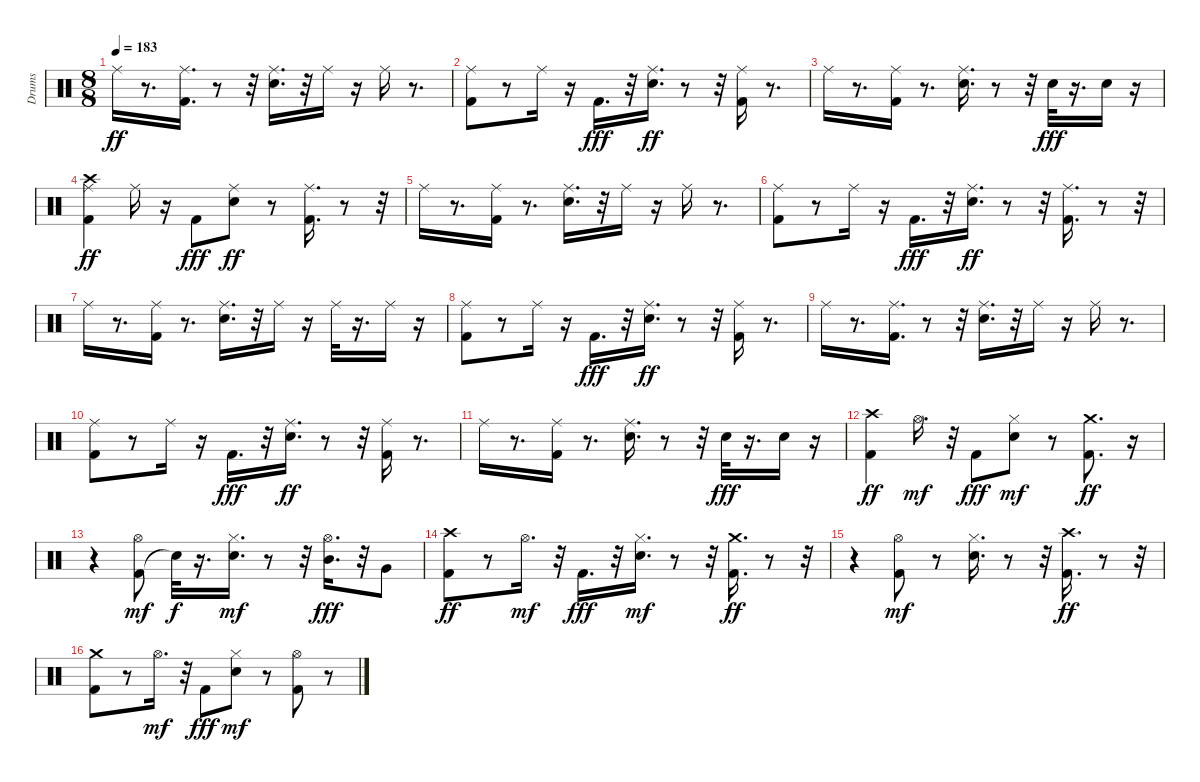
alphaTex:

\track ("Drums" "Drums") {instrument percussion}
\staff {score}
\articulation defaults
\ts (8 8)
\tempo 183
\clef neutral
\ks c "Ride (middle)".16{dy ff}
r.8{d} ("Kick (hit) 2" "Ride (middle)").16{d} r.8 r.32 ("Snare (hit) 2" "Ride (middle)").16{d} r.32 "Ride (middle)".16 r.16 "Ride (middle)".16 r.8{d} |
("Kick (hit) 2" "Ride (middle)").8 r.8 "Ride (middle)".16 r.16 "Kick (hit) 2".16{d dy fff} r.32 ("Snare (hit) 2" "Ride (middle)").16{d dy ff} r.8 r.32 ("Kick (hit) 2" "Ride (middle)").16 r.8{d} |
"Ride (middle)".16 r.8{d} ("Kick (hit) 2" "Ride (middle)").16 r.8{d} ("Snare (hit) 2" "Ride (middle)").16{d} r.8 r.32 "Snare (hit) 2".32{dy fff} r.16{d} "Snare (hit) 2".16 r.16 |
("Kick (hit) 2" "Ride (middle)" "Crash high (hit)").4{dy ff} "Ride (middle)".16 r.16 "Kick (hit) 2".8{dy fff} ("Snare (hit) 2" "Ride (middle)").8{dy ff} r.8 ("Kick (hit) 2" "Ride (middle)").16{d} r.8 r.32 |
"Ride (middle)".16 r.8{d} ("Kick (hit) 2" "Ride (middle)").16 r.8{d} ("Snare (hit) 2" "Ride (middle)").16{d} r.32 "Ride (middle)".16 r.16 "Ride (middle)".16 r.8{d} |
("Kick (hit) 2" "Ride (middle)").8 r.8 "Ride (middle)".16 r.16 "Kick (hit) 2".16{d dy fff} r.32 ("Snare (hit) 2" "Ride (middle)").16{d dy ff} r.8 r.32 ("Kick (hit) 2" "Ride (middle)").16{d} r.8 r.32 |
"Ride (middle)".16 r.8{d} ("Kick (hit) 2" "Ride (middle)").16 r.8{d} ("Snare (hit) 2" "Ride (middle)").16{d} r.32 "Ride (middle)".16 r.16 "Ride (middle)".32 r.16{d} "Ride (middle)".16 r.16 |
("Kick (hit) 2" "Ride (middle)").8 r.8 "Ride (middle)".16 r.16 "Kick (hit) 2".16{d dy fff} r.32 ("Snare (hit) 2" "Ride (middle)").16{d dy ff} r.8 r.32 ("Kick (hit) 2" "Ride (middle)").16 r.8{d} |
"Ride (middle)".16 r.8{d} ("Kick (hit) 2" "Ride (middle)").16{d} r.8 r.32 ("Snare (hit) 2" "Ride (middle)").16{d} r.32 "Ride (middle)".16 r.16 "Ride (middle)".16 r.8{d} |
("Kick (hit) 2" "Ride (middle)").8 r.8 "Ride (middle)".16 r.16 "Kick (hit) 2".16{d dy fff} r.32 ("Snare (hit) 2" "Ride (middle)").16{d dy ff} r.8 r.32 ("Kick (hit) 2" "Ride (middle)").16 r.8{d} |
"Ride (middle)".16 r.8{d} ("Kick (hit) 2" "Ride (middle)").16 r.8{d} ("Snare (hit) 2" "Ride (middle)").16{d} r.8 r.32 "Snare (hit) 2".32{dy fff} r.16{d} "Snare (hit) 2".16 r.16 |
("Kick (hit) 2" "Crash high (hit)").4{dy ff} "Hi-Hat (open)".16{d dy mf} r.32 "Kick (hit) 2".8{dy fff} ("Snare (hit) 2" "Hi-Hat (closed)").8{dy mf} r.8 ("Kick (hit) 2" "Crash medium (hit)").8{d dy ff} r.16 |
r.4 ("Kick (hit) 2" "Hi-Hat (open)").8{dy mf} "Snare (hit)"{t}.32{dy f} r.16{d} ("Snare (hit) 2" "Hi-Hat (closed)").16{d dy mf} r.8 r.32 ("Hi-Hat (open)" "Mid Tom (hit)").16{d dy fff} r.32 "Very Low Tom (hit)".8 |
("Kick (hit) 2" "Crash high (hit)").8{dy ff} r.8 "Hi-Hat (open)".16{d dy mf} r.32 "Kick (hit) 2".16{d dy fff} r.32 ("Snare (hit) 2" "Hi-Hat (closed)").16{d dy mf} r.8 r.32 ("Kick (hit) 2" "Crash medium (hit)").16{d dy ff} r.8 r.32 |
r.4 ("Kick (hit) 2" "Hi-Hat (open)").8{dy mf} r.8 ("Snare (hit) 2" "Hi-Hat (closed)").16{d} r.8 r.32 ("Kick (hit) 2" "Crash high (hit)").16{d dy ff} r.8 r.32 |
("Kick (hit) 2" "Crash medium (hit)").8 r.8 "Hi-Hat (open)".16{d dy mf} r.32 "Kick (hit) 2".8{dy fff} ("Snare (hit) 2" "Hi-Hat (closed)").8{dy mf} r.8 ("Kick (hit) 2" "Hi-Hat (open)").8 r.8
